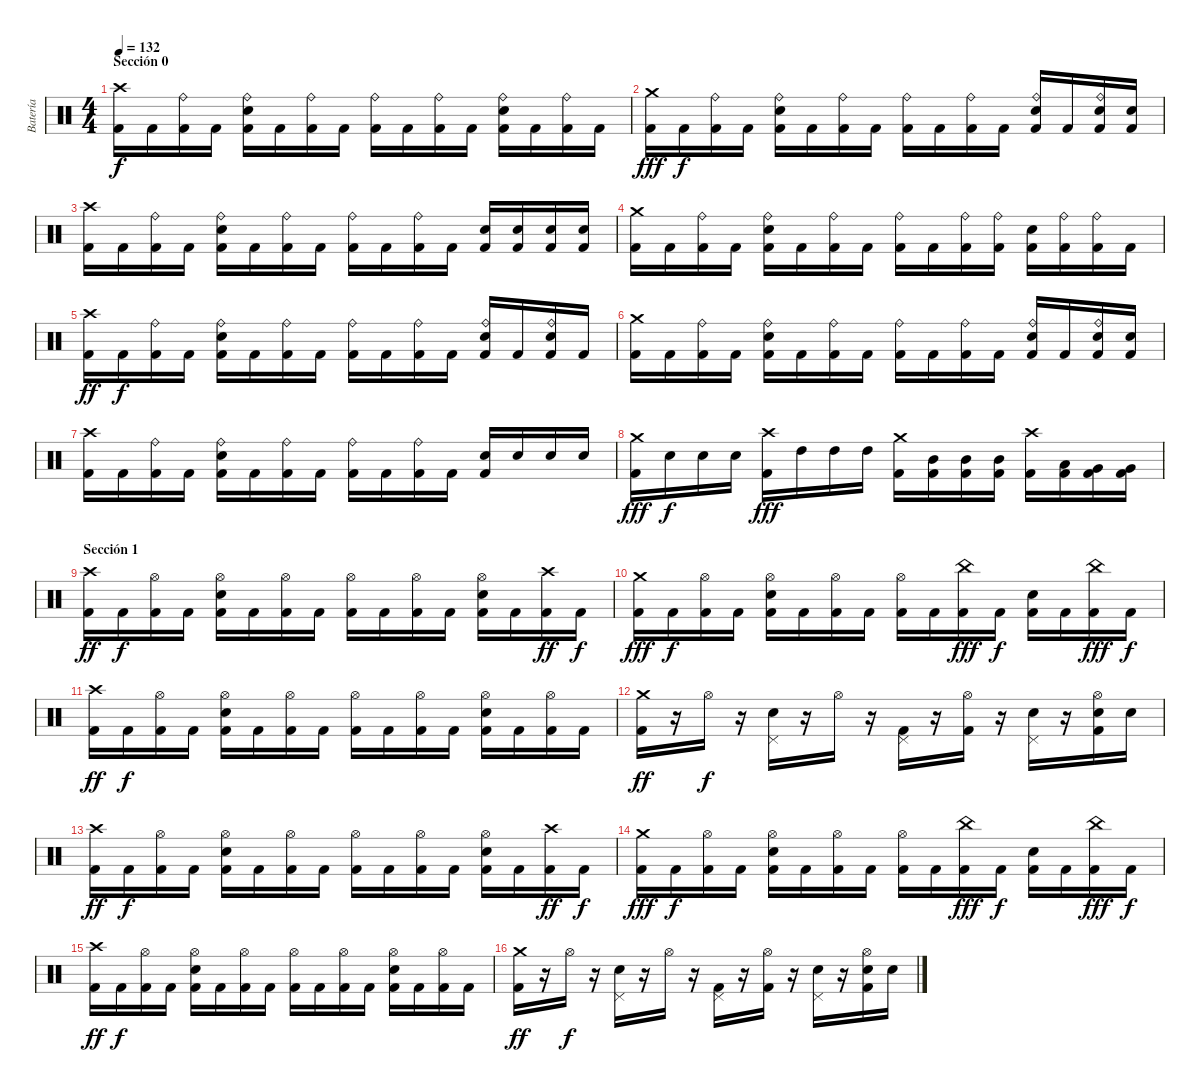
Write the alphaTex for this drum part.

\track ("Batería" "Batería") {instrument percussion}
\staff {score}
\articulation defaults
\ts (4 4)
\section ("" "Sección 0")
\tempo 132
\clef neutral
\ks c
("Crash high (hit)" "Kick (hit) 2").16{dy f} "Kick (hit) 2".16 ("Ride (bell)" "Kick (hit) 2").16 "Kick (hit) 2".16 ("Ride (bell)" "Kick (hit) 2" "Snare (hit) 2").16 "Kick (hit) 2".16 ("Ride (bell)" "Kick (hit) 2").16 "Kick (hit) 2".16 ("Ride (bell)" "Kick (hit) 2").16 "Kick (hit) 2".16 ("Ride (bell)" "Kick (hit) 2").16 "Kick (hit) 2".16 ("Ride (bell)" "Kick (hit) 2" "Snare (hit) 2").16 "Kick (hit) 2".16 ("Ride (bell)" "Kick (hit) 2").16 "Kick (hit) 2".16 |
("Crash medium (hit)" "Kick (hit) 2").16{dy fff} "Kick (hit) 2".16{dy f} ("Ride (bell)" "Kick (hit) 2").16 "Kick (hit) 2".16 ("Ride (bell)" "Kick (hit) 2" "Snare (hit) 2").16 "Kick (hit) 2".16 ("Ride (bell)" "Kick (hit) 2").16 "Kick (hit) 2".16 ("Ride (bell)" "Kick (hit) 2").16 "Kick (hit) 2".16 ("Ride (bell)" "Kick (hit) 2").16 "Kick (hit) 2".16 ("Ride (bell)" "Kick (hit) 2" "Snare (hit) 2").16 "Kick (hit) 2".16 ("Ride (bell)" "Kick (hit) 2" "Snare (hit) 2").16 ("Kick (hit) 2" "Snare (hit) 2").16 |
("Crash high (hit)" "Kick (hit) 2").16 "Kick (hit) 2".16 ("Ride (bell)" "Kick (hit) 2").16 "Kick (hit) 2".16 ("Ride (bell)" "Kick (hit) 2" "Snare (hit) 2").16 "Kick (hit) 2".16 ("Ride (bell)" "Kick (hit) 2").16 "Kick (hit) 2".16 ("Ride (bell)" "Kick (hit) 2").16 "Kick (hit) 2".16 ("Ride (bell)" "Kick (hit) 2").16 "Kick (hit) 2".16 ("Kick (hit) 2" "Snare (hit) 2").16 ("Kick (hit) 2" "Snare (hit) 2").16 ("Kick (hit) 2" "Snare (hit) 2").16 ("Kick (hit) 2" "Snare (hit) 2").16 |
("Crash medium (hit)" "Kick (hit) 2").16 "Kick (hit) 2".16 ("Ride (bell)" "Kick (hit) 2").16 "Kick (hit) 2".16 ("Ride (bell)" "Kick (hit) 2" "Snare (hit) 2").16 "Kick (hit) 2".16 ("Ride (bell)" "Kick (hit) 2").16 "Kick (hit) 2".16 ("Ride (bell)" "Kick (hit) 2").16 "Kick (hit) 2".16 ("Ride (bell)" "Kick (hit) 2").16 ("Ride (bell)" "Kick (hit) 2").16 ("Kick (hit) 2" "Snare (hit) 2").16 ("Ride (bell)" "Kick (hit) 2").16 ("Ride (bell)" "Kick (hit) 2").16 "Kick (hit) 2".16 |
("Crash high (hit)" "Kick (hit) 2").16{dy ff} "Kick (hit) 2".16{dy f} ("Ride (bell)" "Kick (hit) 2").16 "Kick (hit) 2".16 ("Ride (bell)" "Kick (hit) 2" "Snare (hit) 2").16 "Kick (hit) 2".16 ("Ride (bell)" "Kick (hit) 2").16 "Kick (hit) 2".16 ("Ride (bell)" "Kick (hit) 2").16 "Kick (hit) 2".16 ("Ride (bell)" "Kick (hit) 2").16 "Kick (hit) 2".16 ("Ride (bell)" "Kick (hit) 2" "Snare (hit) 2").16 "Kick (hit) 2".16 ("Ride (bell)" "Kick (hit) 2" "Snare (hit) 2").16 "Kick (hit) 2".16 |
("Crash medium (hit)" "Kick (hit) 2").16 "Kick (hit) 2".16 ("Ride (bell)" "Kick (hit) 2").16 "Kick (hit) 2".16 ("Ride (bell)" "Kick (hit) 2" "Snare (hit) 2").16 "Kick (hit) 2".16 ("Ride (bell)" "Kick (hit) 2").16 "Kick (hit) 2".16 ("Ride (bell)" "Kick (hit) 2").16 "Kick (hit) 2".16 ("Ride (bell)" "Kick (hit) 2").16 "Kick (hit) 2".16 ("Ride (bell)" "Kick (hit) 2" "Snare (hit) 2").16 "Kick (hit) 2".16 ("Ride (bell)" "Kick (hit) 2" "Snare (hit) 2").16 ("Kick (hit) 2" "Snare (hit) 2").16 |
("Crash high (hit)" "Kick (hit) 2").16 "Kick (hit) 2".16 ("Ride (bell)" "Kick (hit) 2").16 "Kick (hit) 2".16 ("Ride (bell)" "Kick (hit) 2" "Snare (hit) 2").16 "Kick (hit) 2".16 ("Ride (bell)" "Kick (hit) 2").16 "Kick (hit) 2".16 ("Ride (bell)" "Kick (hit) 2").16 "Kick (hit) 2".16 ("Ride (bell)" "Kick (hit) 2").16 "Kick (hit) 2".16 ("Kick (hit) 2" "Snare (hit) 2").16{volume 15} "Snare (hit) 2".16 "Snare (hit) 2".16 "Snare (hit) 2".16 |
("Crash medium (hit)" "Kick (hit) 2").16{dy fff volume 15} "Snare (hit) 2".16{dy f} "Snare (hit) 2".16 "Snare (hit) 2".16 ("Crash high (hit)" "Kick (hit) 2").16{dy fff} "High Tom (hit)".16 "High Tom (hit)".16 "High Tom (hit)".16 ("Crash medium (hit)" "Kick (hit) 2").16 ("Kick (hit) 2" "Mid Tom (hit)").16 ("Kick (hit) 2" "Mid Tom (hit)").16 ("Kick (hit) 2" "Mid Tom (hit)").16 ("Crash high (hit)" "Kick (hit) 2").16 ("Kick (hit) 2" "Low Tom (hit)").16 ("Kick (hit) 2" "Very Low Tom (hit)").16 ("Kick (hit) 2" "Very Low Tom (hit)").16 |
\section ("" "Sección 1")
("Crash high (hit)" "Kick (hit) 2").16{dy ff volume 14} "Kick (hit) 2".16{dy f} ("Hi-Hat (open)" "Kick (hit) 2").16 "Kick (hit) 2".16 ("Hi-Hat (open)" "Kick (hit) 2" "Snare (hit) 2").16 "Kick (hit) 2".16 ("Hi-Hat (open)" "Kick (hit) 2").16 "Kick (hit) 2".16 ("Hi-Hat (open)" "Kick (hit) 2").16 "Kick (hit) 2".16 ("Hi-Hat (open)" "Kick (hit) 2").16 "Kick (hit) 2".16 ("Hi-Hat (open)" "Kick (hit) 2" "Snare (hit) 2").16 "Kick (hit) 2".16 ("Crash high (hit)" "Kick (hit) 2").16{dy ff} "Kick (hit) 2".16{dy f} |
("Crash medium (hit)" "Kick (hit) 2").16{dy fff} "Kick (hit) 2".16{dy f} ("Hi-Hat (open)" "Kick (hit) 2").16 "Kick (hit) 2".16 ("Hi-Hat (open)" "Kick (hit) 2" "Snare (hit) 2").16 "Kick (hit) 2".16 ("Hi-Hat (open)" "Kick (hit) 2").16 "Kick (hit) 2".16 ("Hi-Hat (open)" "Kick (hit) 2").16 "Kick (hit) 2".16 ("China (hit)" "Kick (hit) 2").16{dy fff} "Kick (hit) 2".16{dy f} ("Kick (hit) 2" "Snare (hit) 2").16 "Kick (hit) 2".16 ("China (hit)" "Kick (hit) 2").16{dy fff} "Kick (hit) 2".16{dy f} |
("Crash high (hit)" "Kick (hit) 2").16{dy ff} "Kick (hit) 2".16{dy f} ("Hi-Hat (open)" "Kick (hit) 2").16 "Kick (hit) 2".16 ("Hi-Hat (open)" "Kick (hit) 2" "Snare (hit) 2").16 "Kick (hit) 2".16 ("Hi-Hat (open)" "Kick (hit) 2").16 "Kick (hit) 2".16 ("Hi-Hat (open)" "Kick (hit) 2").16 "Kick (hit) 2".16 ("Hi-Hat (open)" "Kick (hit) 2").16 "Kick (hit) 2".16 ("Hi-Hat (open)" "Kick (hit) 2" "Snare (hit) 2").16 "Kick (hit) 2".16 ("Hi-Hat (open)" "Kick (hit) 2").16 "Kick (hit) 2".16 |
("Crash medium (hit)" "Kick (hit) 2").16{dy ff} r.16 "Hi-Hat (open)".16{dy f} r.16 ("Pedal Hi-Hat (hit)" "Snare (hit) 2").16 r.16 "Hi-Hat (open)".16 r.16 ("Pedal Hi-Hat (hit)" "Kick (hit) 2").16 r.16 ("Hi-Hat (open)" "Kick (hit) 2").16 r.16 ("Pedal Hi-Hat (hit)" "Snare (hit) 2").16 r.16 ("Hi-Hat (open)" "Kick (hit) 2" "Snare (hit) 2").16 "Snare (hit) 2".16 |
("Crash high (hit)" "Kick (hit) 2").16{dy ff} "Kick (hit) 2".16{dy f} ("Hi-Hat (open)" "Kick (hit) 2").16 "Kick (hit) 2".16 ("Hi-Hat (open)" "Kick (hit) 2" "Snare (hit) 2").16 "Kick (hit) 2".16 ("Hi-Hat (open)" "Kick (hit) 2").16 "Kick (hit) 2".16 ("Hi-Hat (open)" "Kick (hit) 2").16 "Kick (hit) 2".16 ("Hi-Hat (open)" "Kick (hit) 2").16 "Kick (hit) 2".16 ("Hi-Hat (open)" "Kick (hit) 2" "Snare (hit) 2").16 "Kick (hit) 2".16 ("Crash high (hit)" "Kick (hit) 2").16{dy ff} "Kick (hit) 2".16{dy f} |
("Crash medium (hit)" "Kick (hit) 2").16{dy fff} "Kick (hit) 2".16{dy f} ("Hi-Hat (open)" "Kick (hit) 2").16 "Kick (hit) 2".16 ("Hi-Hat (open)" "Kick (hit) 2" "Snare (hit) 2").16 "Kick (hit) 2".16 ("Hi-Hat (open)" "Kick (hit) 2").16 "Kick (hit) 2".16 ("Hi-Hat (open)" "Kick (hit) 2").16 "Kick (hit) 2".16 ("China (hit)" "Kick (hit) 2").16{dy fff} "Kick (hit) 2".16{dy f} ("Kick (hit) 2" "Snare (hit) 2").16 "Kick (hit) 2".16 ("China (hit)" "Kick (hit) 2").16{dy fff} "Kick (hit) 2".16{dy f} |
("Crash high (hit)" "Kick (hit) 2").16{dy ff} "Kick (hit) 2".16{dy f} ("Hi-Hat (open)" "Kick (hit) 2").16 "Kick (hit) 2".16 ("Hi-Hat (open)" "Kick (hit) 2" "Snare (hit) 2").16 "Kick (hit) 2".16 ("Hi-Hat (open)" "Kick (hit) 2").16 "Kick (hit) 2".16 ("Hi-Hat (open)" "Kick (hit) 2").16 "Kick (hit) 2".16 ("Hi-Hat (open)" "Kick (hit) 2").16 "Kick (hit) 2".16 ("Hi-Hat (open)" "Kick (hit) 2" "Snare (hit) 2").16 "Kick (hit) 2".16 ("Hi-Hat (open)" "Kick (hit) 2").16 "Kick (hit) 2".16 |
("Crash medium (hit)" "Kick (hit) 2").16{dy ff} r.16 "Hi-Hat (open)".16{dy f} r.16 ("Pedal Hi-Hat (hit)" "Snare (hit) 2").16 r.16 "Hi-Hat (open)".16 r.16 ("Pedal Hi-Hat (hit)" "Kick (hit) 2").16 r.16 ("Hi-Hat (open)" "Kick (hit) 2").16 r.16 ("Pedal Hi-Hat (hit)" "Snare (hit) 2").16 r.16 ("Hi-Hat (open)" "Kick (hit) 2" "Snare (hit) 2").16 "Snare (hit) 2".16
